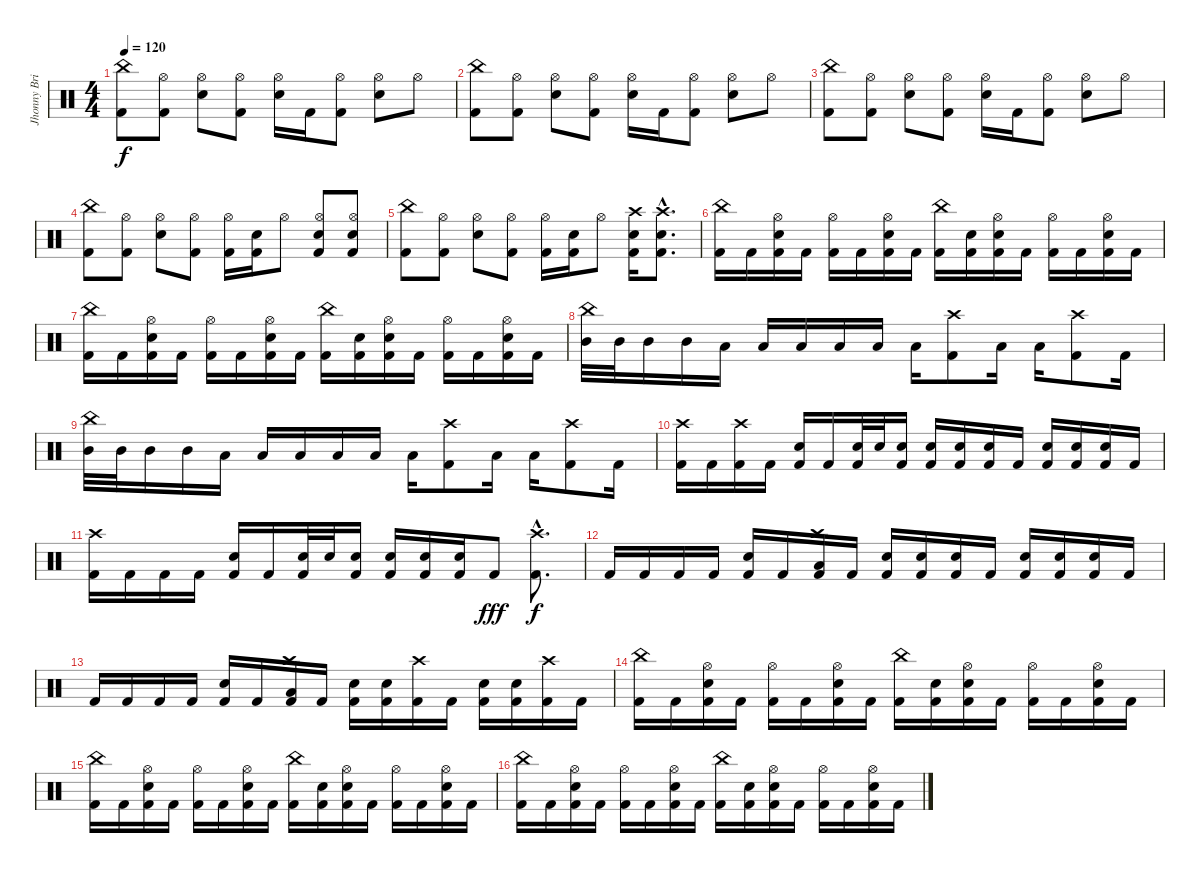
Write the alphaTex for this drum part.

\track ("Jhonny Brillante" "Jhonny Bri") {instrument percussion}
\staff {score}
\articulation defaults
\ts (4 4)
\tempo 120
\clef neutral
\ks c
("China (hit)" "Kick (hit) 2").8{dy f} ("Hi-Hat (open)" "Kick (hit) 2").8 ("Hi-Hat (open)" "Snare (hit) 2").8 ("Hi-Hat (open)" "Kick (hit) 2").8 ("Hi-Hat (open)" "Snare (hit) 2").16 "Kick (hit) 2".16 ("Hi-Hat (open)" "Kick (hit) 2").8 ("Hi-Hat (open)" "Snare (hit) 2").8 "Hi-Hat (open)".8 |
("China (hit)" "Kick (hit) 2").8 ("Hi-Hat (open)" "Kick (hit) 2").8 ("Hi-Hat (open)" "Snare (hit) 2").8 ("Hi-Hat (open)" "Kick (hit) 2").8 ("Hi-Hat (open)" "Snare (hit) 2").16 "Kick (hit) 2".16 ("Hi-Hat (open)" "Kick (hit) 2").8 ("Hi-Hat (open)" "Snare (hit) 2").8 "Hi-Hat (open)".8 |
("China (hit)" "Kick (hit) 2").8 ("Hi-Hat (open)" "Kick (hit) 2").8 ("Hi-Hat (open)" "Snare (hit) 2").8 ("Hi-Hat (open)" "Kick (hit) 2").8 ("Hi-Hat (open)" "Snare (hit) 2").16 "Kick (hit) 2".16 ("Hi-Hat (open)" "Kick (hit) 2").8 ("Hi-Hat (open)" "Snare (hit) 2").8 "Hi-Hat (open)".8 |
("China (hit)" "Kick (hit) 2").8 ("Hi-Hat (open)" "Kick (hit) 2").8 ("Hi-Hat (open)" "Snare (hit) 2").8 ("Hi-Hat (open)" "Kick (hit) 2").8 ("Hi-Hat (open)" "Kick (hit) 2").16 ("Metronome (bell)" "Kick (hit) 2").16 "Hi-Hat (open)".8 ("Hi-Hat (open)" "Snare (hit) 2" "Kick (hit) 2").8 ("Hi-Hat (open)" "Snare (hit) 2" "Kick (hit) 2").8 |
("China (hit)" "Kick (hit) 2").8 ("Hi-Hat (open)" "Kick (hit) 2").8 ("Hi-Hat (open)" "Snare (hit) 2").8 ("Hi-Hat (open)" "Kick (hit) 2").8 ("Hi-Hat (open)" "Kick (hit) 2").16 ("Metronome (bell)" "Kick (hit) 2").16 "Hi-Hat (open)".8 ("Crash high (hit)" "Snare (hit) 2" "Kick (hit) 2").16 ("Crash high (hit)"{hac} "Snare (hit) 2"{hac} "Kick (hit) 2"{hac}).8{d} |
("China (hit)" "Kick (hit) 2").16 "Kick (hit) 2".16 ("Hi-Hat (open)" "Snare (hit) 2" "Kick (hit) 2").16 "Kick (hit) 2".16 ("Hi-Hat (open)" "Kick (hit) 2").16 "Kick (hit) 2".16 ("Hi-Hat (open)" "Snare (hit) 2" "Kick (hit) 2").16 "Kick (hit) 2".16 ("China (hit)" "Kick (hit) 2").16 ("Snare (hit) 2" "Kick (hit) 2").16 ("Hi-Hat (open)" "Snare (hit) 2" "Kick (hit) 2").16 "Kick (hit) 2".16 ("Hi-Hat (open)" "Kick (hit) 2").16 "Kick (hit) 2".16 ("Hi-Hat (open)" "Snare (hit) 2" "Kick (hit) 2").16 "Kick (hit) 2".16 |
("China (hit)" "Kick (hit) 2").16 "Kick (hit) 2".16 ("Hi-Hat (open)" "Snare (hit) 2" "Kick (hit) 2").16 "Kick (hit) 2".16 ("Hi-Hat (open)" "Kick (hit) 2").16 "Kick (hit) 2".16 ("Hi-Hat (open)" "Snare (hit) 2" "Kick (hit) 2").16 "Kick (hit) 2".16 ("China (hit)" "Kick (hit) 2").16 ("Snare (hit) 2" "Kick (hit) 2").16 ("Hi-Hat (open)" "Snare (hit) 2" "Kick (hit) 2").16 "Kick (hit) 2".16 ("Hi-Hat (open)" "Kick (hit) 2").16 "Kick (hit) 2".16 ("Hi-Hat (open)" "Snare (hit) 2" "Kick (hit) 2").16 "Kick (hit) 2".16 |
("China (hit)" "Mid Tom (hit)").32 "Mid Tom (hit)".32 "Mid Tom (hit)".16 "Mid Tom (hit)".16 "Low Tom (hit)".16 "Low Tom (hit)".16 "Low Tom (hit)".16 "Low Tom (hit)".16 "Low Tom (hit)".16 "Low Tom (hit)".16 ("Crash high (hit)" "Kick (hit) 2").8 "Low Tom (hit)".16 "Low Tom (hit)".16 ("Crash high (hit)" "Kick (hit) 2").8 "Kick (hit) 2".16 |
("China (hit)" "Mid Tom (hit)").32 "Mid Tom (hit)".32 "Mid Tom (hit)".16 "Mid Tom (hit)".16 "Low Tom (hit)".16 "Low Tom (hit)".16 "Low Tom (hit)".16 "Low Tom (hit)".16 "Low Tom (hit)".16 "Low Tom (hit)".16 ("Crash high (hit)" "Kick (hit) 2").8 "Low Tom (hit)".16 "Low Tom (hit)".16 ("Crash high (hit)" "Kick (hit) 2").8 "Kick (hit) 2".16 |
("Crash high (hit)" "Kick (hit) 2").16 "Kick (hit) 2".16 ("Crash high (hit)" "Kick (hit) 2").16 "Kick (hit) 2".16 ("Snare (hit) 2" "Kick (hit) 2").16 "Kick (hit) 2".16 ("Snare (hit) 2" "Kick (hit) 2").32 "Snare (hit) 2".32 ("Snare (hit) 2" "Kick (hit) 2").16 ("Snare (hit) 2" "Kick (hit) 2").16 ("Snare (hit) 2" "Kick (hit) 2").16 ("Snare (hit) 2" "Kick (hit) 2").16 "Kick (hit) 2".16 ("Snare (hit) 2" "Kick (hit) 2").16 ("Snare (hit) 2" "Kick (hit) 2").16 ("Snare (hit) 2" "Kick (hit) 2").16 "Kick (hit) 2".16 |
("Crash high (hit)" "Kick (hit) 2").16 "Kick (hit) 2".16 "Kick (hit) 2".16 "Kick (hit) 2".16 ("Snare (hit) 2" "Kick (hit) 2").16 "Kick (hit) 2".16 ("Snare (hit) 2" "Kick (hit) 2").32 "Snare (hit) 2".32 ("Snare (hit) 2" "Kick (hit) 2").16 ("Snare (hit) 2" "Kick (hit) 2").16 ("Snare (hit) 2" "Kick (hit) 2").16 ("Snare (hit) 2" "Kick (hit) 2").16 "Kick (hit) 2".8{dy fff} ("Crash high (hit)"{hac} "Kick (hit) 2"{hac}).8{d dy f} |
"Kick (hit) 2".16 "Kick (hit) 2".16 "Kick (hit) 2".16 "Kick (hit) 2".16 ("Snare (hit) 2" "Kick (hit) 2").16 "Kick (hit) 2".16 ("Low Tom (hit)" "Crash high (hit)" "Kick (hit) 2").16 "Kick (hit) 2".16 ("Snare (hit) 2" "Kick (hit) 2").16 ("Snare (hit) 2" "Kick (hit) 2").16 ("Snare (hit) 2" "Kick (hit) 2").16 "Kick (hit) 2".16 ("Snare (hit) 2" "Kick (hit) 2").16 ("Snare (hit) 2" "Kick (hit) 2").16 ("Snare (hit) 2" "Kick (hit) 2").16 "Kick (hit) 2".16 |
"Kick (hit) 2".16 "Kick (hit) 2".16 "Kick (hit) 2".16 "Kick (hit) 2".16 ("Snare (hit) 2" "Kick (hit) 2").16 "Kick (hit) 2".16 ("Low Tom (hit)" "Crash high (hit)" "Kick (hit) 2").16 "Kick (hit) 2".16 ("Snare (hit) 2" "Kick (hit) 2").16 ("Snare (hit) 2" "Kick (hit) 2").16 ("Crash high (hit)" "Kick (hit) 2").16 "Kick (hit) 2".16 ("Snare (hit) 2" "Kick (hit) 2").16 ("Snare (hit) 2" "Kick (hit) 2").16 ("Crash high (hit)" "Kick (hit) 2").16 "Kick (hit) 2".16 |
("China (hit)" "Kick (hit) 2").16 "Kick (hit) 2".16 ("Hi-Hat (open)" "Snare (hit) 2" "Kick (hit) 2").16 "Kick (hit) 2".16 ("Hi-Hat (open)" "Kick (hit) 2").16 "Kick (hit) 2".16 ("Hi-Hat (open)" "Snare (hit) 2" "Kick (hit) 2").16 "Kick (hit) 2".16 ("China (hit)" "Kick (hit) 2").16 ("Snare (hit) 2" "Kick (hit) 2").16 ("Hi-Hat (open)" "Snare (hit) 2" "Kick (hit) 2").16 "Kick (hit) 2".16 ("Hi-Hat (open)" "Kick (hit) 2").16 "Kick (hit) 2".16 ("Hi-Hat (open)" "Snare (hit) 2" "Kick (hit) 2").16 "Kick (hit) 2".16 |
("China (hit)" "Kick (hit) 2").16 "Kick (hit) 2".16 ("Hi-Hat (open)" "Snare (hit) 2" "Kick (hit) 2").16 "Kick (hit) 2".16 ("Hi-Hat (open)" "Kick (hit) 2").16 "Kick (hit) 2".16 ("Hi-Hat (open)" "Snare (hit) 2" "Kick (hit) 2").16 "Kick (hit) 2".16 ("China (hit)" "Kick (hit) 2").16 ("Snare (hit) 2" "Kick (hit) 2").16 ("Hi-Hat (open)" "Snare (hit) 2" "Kick (hit) 2").16 "Kick (hit) 2".16 ("Hi-Hat (open)" "Kick (hit) 2").16 "Kick (hit) 2".16 ("Hi-Hat (open)" "Snare (hit) 2" "Kick (hit) 2").16 "Kick (hit) 2".16 |
("China (hit)" "Kick (hit) 2").16 "Kick (hit) 2".16 ("Hi-Hat (open)" "Snare (hit) 2" "Kick (hit) 2").16 "Kick (hit) 2".16 ("Hi-Hat (open)" "Kick (hit) 2").16 "Kick (hit) 2".16 ("Hi-Hat (open)" "Snare (hit) 2" "Kick (hit) 2").16 "Kick (hit) 2".16 ("China (hit)" "Kick (hit) 2").16 ("Snare (hit) 2" "Kick (hit) 2").16 ("Hi-Hat (open)" "Snare (hit) 2" "Kick (hit) 2").16 "Kick (hit) 2".16 ("Hi-Hat (open)" "Kick (hit) 2").16 "Kick (hit) 2".16 ("Hi-Hat (open)" "Snare (hit) 2" "Kick (hit) 2").16 "Kick (hit) 2".16
